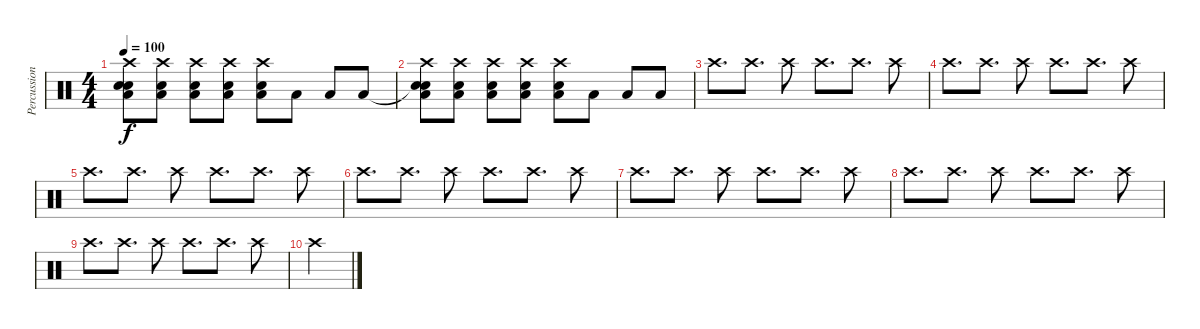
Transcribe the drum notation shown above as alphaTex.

\track ("Percussion" "Percussion") {instrument percussion}
\staff {score}
\articulation defaults
\ts (4 4)
\tempo 100
\clef neutral
\ks c
("Snare (hit)"{t} "Low Floor Tom (hit)" "Crash high (hit)" "Electric Snare (hit)").8{dy f} ("Low Floor Tom (hit)" "Crash high (hit)" "Electric Snare (hit)").8 ("Low Floor Tom (hit)" "Crash high (hit)" "Electric Snare (hit)").8 ("Low Floor Tom (hit)" "Crash high (hit)" "Electric Snare (hit)").8 ("Low Floor Tom (hit)" "Crash high (hit)" "Electric Snare (hit)").8 "Low Floor Tom (hit)".8 "Low Floor Tom (hit)".8 "Low Floor Tom (hit)".8 |
("Snare (hit)"{t} "Low Floor Tom (hit)" "Crash high (hit)" "Electric Snare (hit)").8 ("Low Floor Tom (hit)" "Crash high (hit)" "Electric Snare (hit)").8 ("Low Floor Tom (hit)" "Crash high (hit)" "Electric Snare (hit)").8 ("Low Floor Tom (hit)" "Crash high (hit)" "Electric Snare (hit)").8 ("Low Floor Tom (hit)" "Crash high (hit)" "Electric Snare (hit)").8 "Low Floor Tom (hit)".8 "Low Floor Tom (hit)".8 "Low Floor Tom (hit)".8 |
"Crash high (hit)".8{d} "Crash high (hit)".8{d} "Crash high (hit)".8 "Crash high (hit)".8{d} "Crash high (hit)".8{d} "Crash high (hit)".8 |
"Crash high (hit)".8{d} "Crash high (hit)".8{d} "Crash high (hit)".8 "Crash high (hit)".8{d} "Crash high (hit)".8{d} "Crash high (hit)".8 |
"Crash high (hit)".8{d} "Crash high (hit)".8{d} "Crash high (hit)".8 "Crash high (hit)".8{d} "Crash high (hit)".8{d} "Crash high (hit)".8 |
"Crash high (hit)".8{d} "Crash high (hit)".8{d} "Crash high (hit)".8 "Crash high (hit)".8{d} "Crash high (hit)".8{d} "Crash high (hit)".8 |
"Crash high (hit)".8{d} "Crash high (hit)".8{d} "Crash high (hit)".8 "Crash high (hit)".8{d} "Crash high (hit)".8{d} "Crash high (hit)".8 |
"Crash high (hit)".8{d} "Crash high (hit)".8{d} "Crash high (hit)".8 "Crash high (hit)".8{d} "Crash high (hit)".8{d} "Crash high (hit)".8 |
"Crash high (hit)".8{d} "Crash high (hit)".8{d} "Crash high (hit)".8 "Crash high (hit)".8{d} "Crash high (hit)".8{d} "Crash high (hit)".8 |
"Crash high (hit)".4
